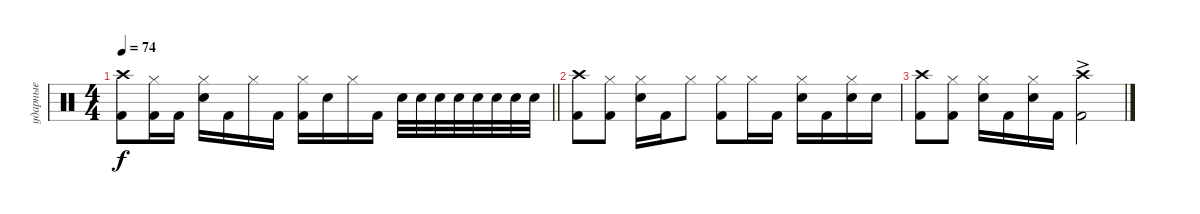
\track ("ударные" "ударные") {instrument percussion}
\staff {score}
\articulation defaults
\ts (4 4)
\tempo 74
\clef neutral
\barLineRight lightlight
\ks aminor
("Kick (hit) 2" "Crash high (hit)").8{dy f} ("Kick (hit) 2" "Hi-Hat (closed)").16 "Kick (hit) 2".16 ("Snare (hit) 2" "Hi-Hat (closed)").16 "Kick (hit) 2".16 "Hi-Hat (closed)".16 "Kick (hit) 2".16 ("Kick (hit) 2" "Hi-Hat (closed)").16 "Snare (hit) 2".16 "Hi-Hat (closed)".16 "Kick (hit) 2".16 "Snare (hit) 2".32 "Snare (hit) 2".32 "Snare (hit) 2".32 "Snare (hit) 2".32 "Snare (hit) 2".32 "Snare (hit) 2".32 "Snare (hit) 2".32 "Snare (hit) 2".32 |
\section ("" "")
("Kick (hit) 2" "Crash high (hit)").8 ("Kick (hit) 2" "Hi-Hat (closed)").8 ("Snare (hit) 2" "Hi-Hat (closed)").16 "Kick (hit) 2".16 "Hi-Hat (closed)".8 ("Kick (hit) 2" "Hi-Hat (closed)").8 "Hi-Hat (closed)".16 "Kick (hit) 2".16 ("Snare (hit) 2" "Hi-Hat (closed)").16 "Kick (hit) 2".16 ("Snare (hit) 2" "Hi-Hat (closed)").16 "Snare (hit) 2".16 |
("Kick (hit) 2" "Crash high (hit)").8 ("Kick (hit) 2" "Hi-Hat (closed)").8 ("Snare (hit) 2" "Hi-Hat (closed)").16 "Kick (hit) 2".16 ("Snare (hit) 2" "Hi-Hat (closed)").16 "Kick (hit) 2".16 ("Kick (hit) 2"{ac} "Crash high (hit)"{ac}).2
